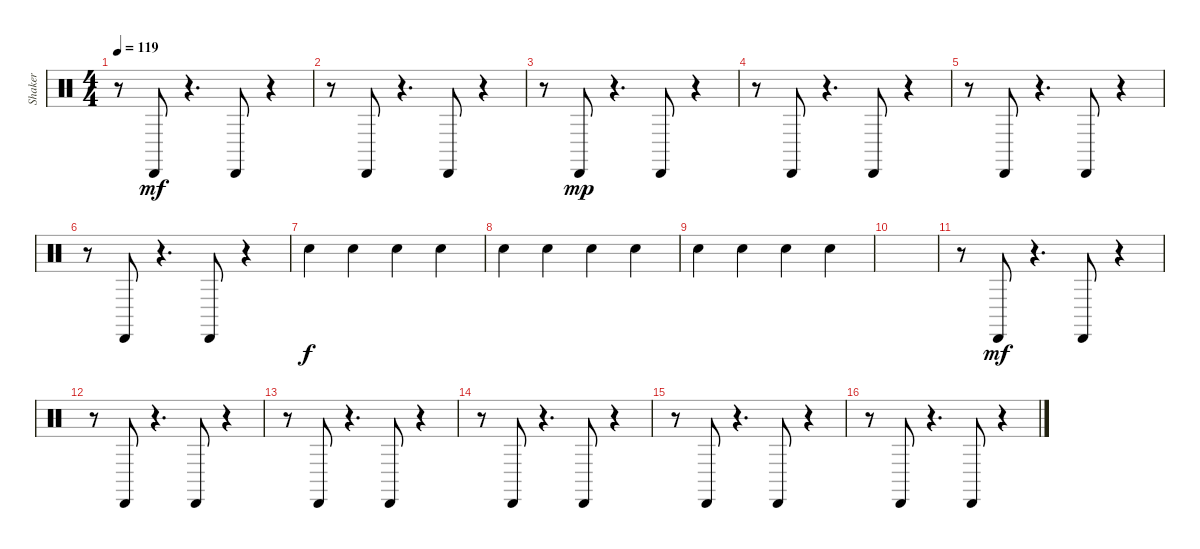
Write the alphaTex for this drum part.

\track ("Shaker" "Shaker") {instrument percussion}
\staff {score}
\articulation defaults
\ts (4 4)
\tempo 119
\clef neutral
\ks c
r.8{dy mf} "Cabasa (hit)".8 r.4{d} "Cabasa (hit)".8 r.4 |
r.8 "Cabasa (hit)".8 r.4{d} "Cabasa (hit)".8 r.4 |
r.8 "Cabasa (hit)".8{dy mp} r.4{d} "Cabasa (hit)".8 r.4 |
r.8 "Cabasa (hit)".8 r.4{d} "Cabasa (hit)".8 r.4 |
r.8 "Cabasa (hit)".8 r.4{d} "Cabasa (hit)".8 r.4 |
r.8 "Cabasa (hit)".8 r.4{d} "Cabasa (hit)".8 r.4 |
"Hand Clap (hit)".4{dy f} "Hand Clap (hit)".4 "Hand Clap (hit)".4 "Hand Clap (hit)".4 |
"Hand Clap (hit)".4 "Hand Clap (hit)".4 "Hand Clap (hit)".4 "Hand Clap (hit)".4 |
"Hand Clap (hit)".4 "Hand Clap (hit)".4 "Hand Clap (hit)".4 "Hand Clap (hit)".4 |
|
r.8 "Cabasa (hit)".8{dy mf} r.4{d} "Cabasa (hit)".8 r.4 |
r.8 "Cabasa (hit)".8 r.4{d} "Cabasa (hit)".8 r.4 |
r.8 "Cabasa (hit)".8 r.4{d} "Cabasa (hit)".8 r.4 |
r.8 "Cabasa (hit)".8 r.4{d} "Cabasa (hit)".8 r.4 |
r.8 "Cabasa (hit)".8 r.4{d} "Cabasa (hit)".8 r.4 |
r.8 "Cabasa (hit)".8 r.4{d} "Cabasa (hit)".8 r.4
